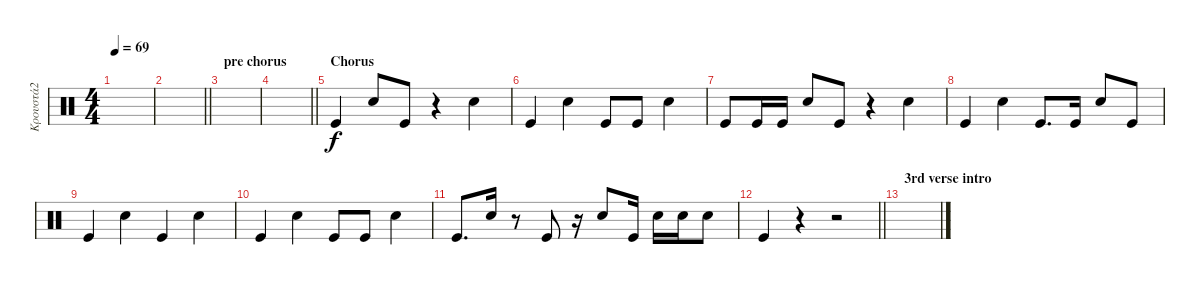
\track ("Κρουστά2" "Κρουστά2") {instrument percussion}
\staff {score}
\articulation defaults
\ts (4 4)
\tempo 69
\clef neutral
\ks c
|
\barLineRight lightlight
|
\section ("" "pre chorus")
|
\barLineRight lightlight
|
\section ("" "Chorus")
"Kick (hit)".4 "Snare (hit) 2".8 "Kick (hit)".8 r.4 "Snare (hit) 2".4 |
"Kick (hit)".4 "Snare (hit) 2".4 "Kick (hit)".8 "Kick (hit)".8 "Snare (hit) 2".4 |
"Kick (hit)".8 "Kick (hit)".16 "Kick (hit)".16 "Snare (hit) 2".8 "Kick (hit)".8 r.4 "Snare (hit) 2".4 |
"Kick (hit)".4 "Snare (hit) 2".4 "Kick (hit)".8{d} "Kick (hit)".16 "Snare (hit) 2".8 "Kick (hit)".8 |
"Kick (hit)".4 "Snare (hit) 2".4 "Kick (hit)".4 "Snare (hit) 2".4 |
"Kick (hit)".4 "Snare (hit) 2".4 "Kick (hit)".8 "Kick (hit)".8 "Snare (hit) 2".4 |
"Kick (hit)".8{d} "Snare (hit) 2".16 r.8 "Kick (hit)".8 r.16 "Snare (hit) 2".8 "Kick (hit)".16 "Snare (hit) 2".16 "Snare (hit) 2".16 "Snare (hit) 2".8 |
\barLineRight lightlight "Kick (hit)".4
r.4 r.2 |
\section ("" "3rd verse intro")
